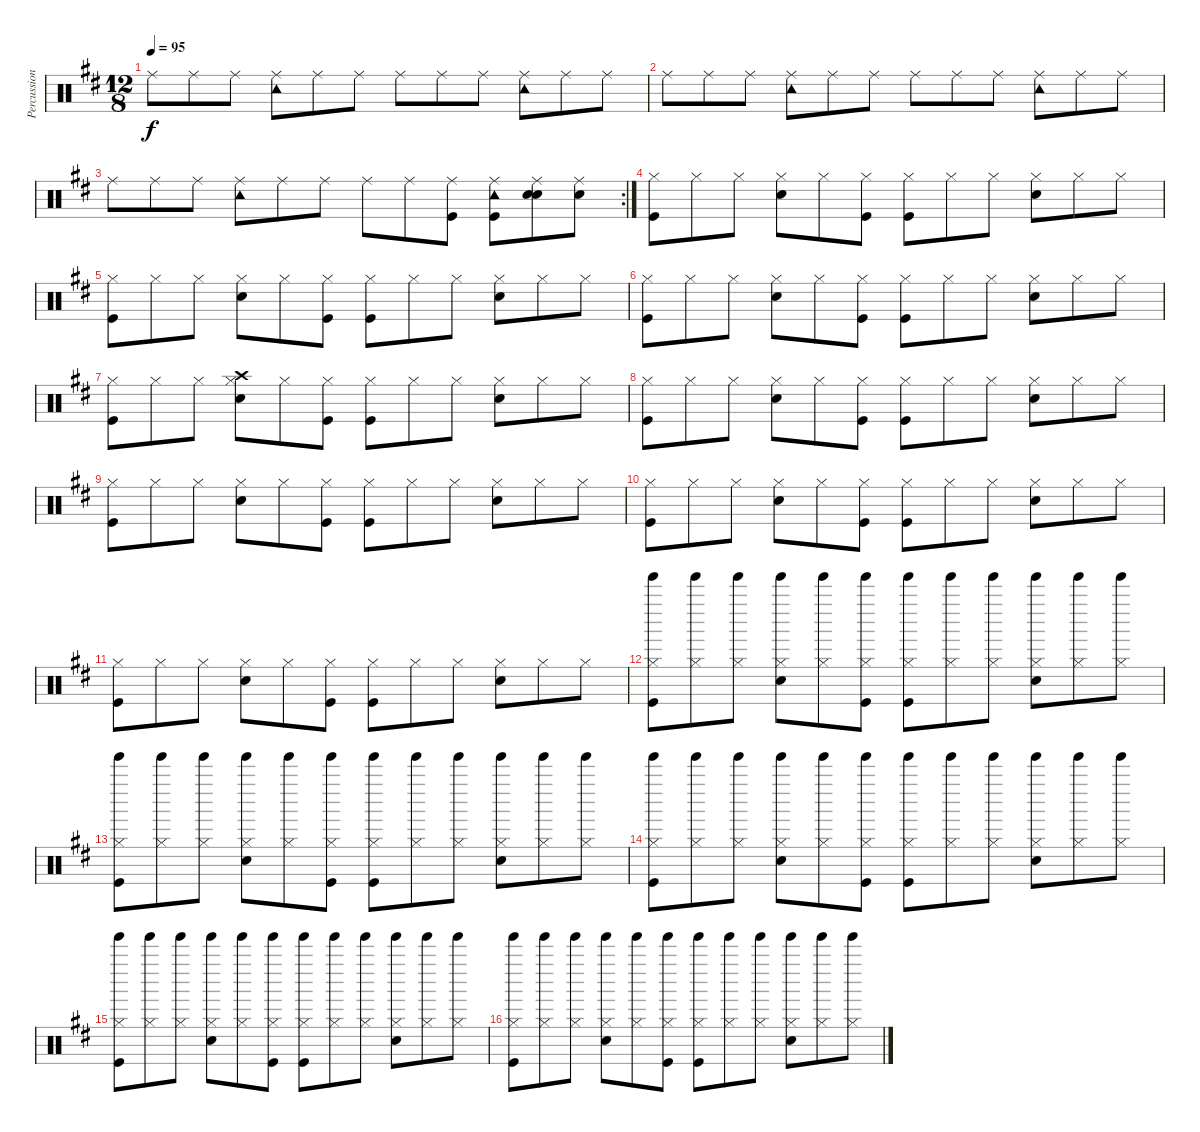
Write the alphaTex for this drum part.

\track ("Percussion" "Percussion") {instrument percussion}
\staff {score}
\articulation defaults
\ts (12 8)
\tempo 95
\clef neutral
\ks d "Ride (middle)".8{dy f} "Ride (middle)".8 "Ride (middle)".8
("Ride (middle)" "Tambourine (hit)").8 "Ride (middle)".8 "Ride (middle)".8 "Ride (middle)".8 "Ride (middle)".8 "Ride (middle)".8 ("Ride (middle)" "Tambourine (hit)").8 "Ride (middle)".8 "Ride (middle)".8 |
"Ride (middle)".8 "Ride (middle)".8 "Ride (middle)".8 ("Ride (middle)" "Tambourine (hit)").8 "Ride (middle)".8 "Ride (middle)".8 "Ride (middle)".8 "Ride (middle)".8 "Ride (middle)".8 ("Ride (middle)" "Tambourine (hit)").8 "Ride (middle)".8 "Ride (middle)".8 |
\rc 2 "Ride (middle)".8 "Ride (middle)".8 "Ride (middle)".8
("Ride (middle)" "Tambourine (hit)").8 "Ride (middle)".8 "Ride (middle)".8 "Ride (middle)".8 "Ride (middle)".8 ("Ride (middle)" "Kick (hit)").8 ("Ride (middle)" "Kick (hit)" "Tambourine (hit)").8 ("Ride (middle)" "Snare (hit) 2" "Snare (hit) 2").8 ("Ride (middle)" "Snare (hit) 2").8 |
("Hi-Hat (closed)" "Kick (hit)").8 "Hi-Hat (closed)".8 "Hi-Hat (closed)".8 ("Hi-Hat (closed)" "Snare (hit) 2").8 "Hi-Hat (closed)".8 ("Hi-Hat (closed)" "Kick (hit)").8 ("Hi-Hat (closed)" "Kick (hit)").8 "Hi-Hat (closed)".8 "Hi-Hat (closed)".8 ("Hi-Hat (closed)" "Snare (hit) 2").8 "Hi-Hat (closed)".8 "Hi-Hat (closed)".8 |
("Hi-Hat (closed)" "Kick (hit)").8 "Hi-Hat (closed)".8 "Hi-Hat (closed)".8 ("Hi-Hat (closed)" "Snare (hit) 2").8 "Hi-Hat (closed)".8 ("Hi-Hat (closed)" "Kick (hit)").8 ("Hi-Hat (closed)" "Kick (hit)").8 "Hi-Hat (closed)".8 "Hi-Hat (closed)".8 ("Hi-Hat (closed)" "Snare (hit) 2").8 "Hi-Hat (closed)".8 "Hi-Hat (closed)".8 |
("Hi-Hat (closed)" "Kick (hit)").8 "Hi-Hat (closed)".8 "Hi-Hat (closed)".8 ("Hi-Hat (closed)" "Snare (hit) 2").8 "Hi-Hat (closed)".8 ("Hi-Hat (closed)" "Kick (hit)").8 ("Hi-Hat (closed)" "Kick (hit)").8 "Hi-Hat (closed)".8 "Hi-Hat (closed)".8 ("Hi-Hat (closed)" "Snare (hit) 2").8 "Hi-Hat (closed)".8 "Hi-Hat (closed)".8 |
("Hi-Hat (closed)" "Kick (hit)").8 "Hi-Hat (closed)".8 "Hi-Hat (closed)".8 ("Hi-Hat (closed)" "Crash high (hit)" "Snare (hit) 2").8 "Hi-Hat (closed)".8 ("Hi-Hat (closed)" "Kick (hit)").8 ("Hi-Hat (closed)" "Kick (hit)").8 "Hi-Hat (closed)".8 "Hi-Hat (closed)".8 ("Hi-Hat (closed)" "Snare (hit) 2").8 "Hi-Hat (closed)".8 "Hi-Hat (closed)".8 |
("Hi-Hat (closed)" "Kick (hit)").8 "Hi-Hat (closed)".8 "Hi-Hat (closed)".8 ("Hi-Hat (closed)" "Snare (hit) 2").8 "Hi-Hat (closed)".8 ("Hi-Hat (closed)" "Kick (hit)").8 ("Hi-Hat (closed)" "Kick (hit)").8 "Hi-Hat (closed)".8 "Hi-Hat (closed)".8 ("Hi-Hat (closed)" "Snare (hit) 2").8 "Hi-Hat (closed)".8 "Hi-Hat (closed)".8 |
("Hi-Hat (closed)" "Kick (hit)").8 "Hi-Hat (closed)".8 "Hi-Hat (closed)".8 ("Hi-Hat (closed)" "Snare (hit) 2").8 "Hi-Hat (closed)".8 ("Hi-Hat (closed)" "Kick (hit)").8 ("Hi-Hat (closed)" "Kick (hit)").8 "Hi-Hat (closed)".8 "Hi-Hat (closed)".8 ("Hi-Hat (closed)" "Snare (hit) 2").8 "Hi-Hat (closed)".8 "Hi-Hat (closed)".8 |
("Hi-Hat (closed)" "Kick (hit)").8 "Hi-Hat (closed)".8 "Hi-Hat (closed)".8 ("Hi-Hat (closed)" "Snare (hit) 2").8 "Hi-Hat (closed)".8 ("Hi-Hat (closed)" "Kick (hit)").8 ("Hi-Hat (closed)" "Kick (hit)").8 "Hi-Hat (closed)".8 "Hi-Hat (closed)".8 ("Hi-Hat (closed)" "Snare (hit) 2").8 "Hi-Hat (closed)".8 "Hi-Hat (closed)".8 |
("Hi-Hat (closed)" "Kick (hit)").8 "Hi-Hat (closed)".8 "Hi-Hat (closed)".8 ("Hi-Hat (closed)" "Snare (hit) 2").8 "Hi-Hat (closed)".8 ("Hi-Hat (closed)" "Kick (hit)").8 ("Hi-Hat (closed)" "Kick (hit)").8 "Hi-Hat (closed)".8 "Hi-Hat (closed)".8 ("Hi-Hat (closed)" "Snare (hit) 2").8 "Hi-Hat (closed)".8 "Hi-Hat (closed)".8 |
("Hi-Hat (closed)" "Tinkle Bell (hit)" "Kick (hit)").8 ("Hi-Hat (closed)" "Tinkle Bell (hit)").8 ("Hi-Hat (closed)" "Tinkle Bell (hit)").8 ("Hi-Hat (closed)" "Tinkle Bell (hit)" "Snare (hit) 2").8 ("Hi-Hat (closed)" "Tinkle Bell (hit)").8 ("Hi-Hat (closed)" "Tinkle Bell (hit)" "Kick (hit)").8 ("Hi-Hat (closed)" "Tinkle Bell (hit)" "Kick (hit)").8 ("Hi-Hat (closed)" "Tinkle Bell (hit)").8 ("Hi-Hat (closed)" "Tinkle Bell (hit)").8 ("Hi-Hat (closed)" "Tinkle Bell (hit)" "Snare (hit) 2").8 ("Hi-Hat (closed)" "Tinkle Bell (hit)").8 ("Hi-Hat (closed)" "Tinkle Bell (hit)").8 |
("Hi-Hat (closed)" "Tinkle Bell (hit)" "Kick (hit)").8 ("Hi-Hat (closed)" "Tinkle Bell (hit)").8 ("Hi-Hat (closed)" "Tinkle Bell (hit)").8 ("Hi-Hat (closed)" "Tinkle Bell (hit)" "Snare (hit) 2").8 ("Hi-Hat (closed)" "Tinkle Bell (hit)").8 ("Hi-Hat (closed)" "Tinkle Bell (hit)" "Kick (hit)").8 ("Hi-Hat (closed)" "Tinkle Bell (hit)" "Kick (hit)").8 ("Hi-Hat (closed)" "Tinkle Bell (hit)").8 ("Hi-Hat (closed)" "Tinkle Bell (hit)").8 ("Hi-Hat (closed)" "Tinkle Bell (hit)" "Snare (hit) 2").8 ("Hi-Hat (closed)" "Tinkle Bell (hit)").8 ("Hi-Hat (closed)" "Tinkle Bell (hit)").8 |
("Hi-Hat (closed)" "Tinkle Bell (hit)" "Kick (hit)").8 ("Hi-Hat (closed)" "Tinkle Bell (hit)").8 ("Hi-Hat (closed)" "Tinkle Bell (hit)").8 ("Hi-Hat (closed)" "Tinkle Bell (hit)" "Snare (hit) 2").8 ("Hi-Hat (closed)" "Tinkle Bell (hit)").8 ("Hi-Hat (closed)" "Tinkle Bell (hit)" "Kick (hit)").8 ("Hi-Hat (closed)" "Tinkle Bell (hit)" "Kick (hit)").8 ("Hi-Hat (closed)" "Tinkle Bell (hit)").8 ("Hi-Hat (closed)" "Tinkle Bell (hit)").8 ("Hi-Hat (closed)" "Tinkle Bell (hit)" "Snare (hit) 2").8 ("Hi-Hat (closed)" "Tinkle Bell (hit)").8 ("Hi-Hat (closed)" "Tinkle Bell (hit)").8 |
("Hi-Hat (closed)" "Tinkle Bell (hit)" "Kick (hit)").8 ("Hi-Hat (closed)" "Tinkle Bell (hit)").8 ("Hi-Hat (closed)" "Tinkle Bell (hit)").8 ("Hi-Hat (closed)" "Tinkle Bell (hit)" "Snare (hit) 2").8 ("Hi-Hat (closed)" "Tinkle Bell (hit)").8 ("Hi-Hat (closed)" "Tinkle Bell (hit)" "Kick (hit)").8 ("Hi-Hat (closed)" "Tinkle Bell (hit)" "Kick (hit)").8 ("Hi-Hat (closed)" "Tinkle Bell (hit)").8 ("Hi-Hat (closed)" "Tinkle Bell (hit)").8 ("Hi-Hat (closed)" "Tinkle Bell (hit)" "Snare (hit) 2").8 ("Hi-Hat (closed)" "Tinkle Bell (hit)").8 ("Hi-Hat (closed)" "Tinkle Bell (hit)").8 |
("Hi-Hat (closed)" "Tinkle Bell (hit)" "Kick (hit)").8 ("Hi-Hat (closed)" "Tinkle Bell (hit)").8 ("Hi-Hat (closed)" "Tinkle Bell (hit)").8 ("Hi-Hat (closed)" "Tinkle Bell (hit)" "Snare (hit) 2").8 ("Hi-Hat (closed)" "Tinkle Bell (hit)").8 ("Hi-Hat (closed)" "Tinkle Bell (hit)" "Kick (hit)").8 ("Hi-Hat (closed)" "Tinkle Bell (hit)" "Kick (hit)").8 ("Hi-Hat (closed)" "Tinkle Bell (hit)").8 ("Hi-Hat (closed)" "Tinkle Bell (hit)").8 ("Hi-Hat (closed)" "Tinkle Bell (hit)" "Snare (hit) 2").8 ("Hi-Hat (closed)" "Tinkle Bell (hit)").8 ("Hi-Hat (closed)" "Tinkle Bell (hit)").8
